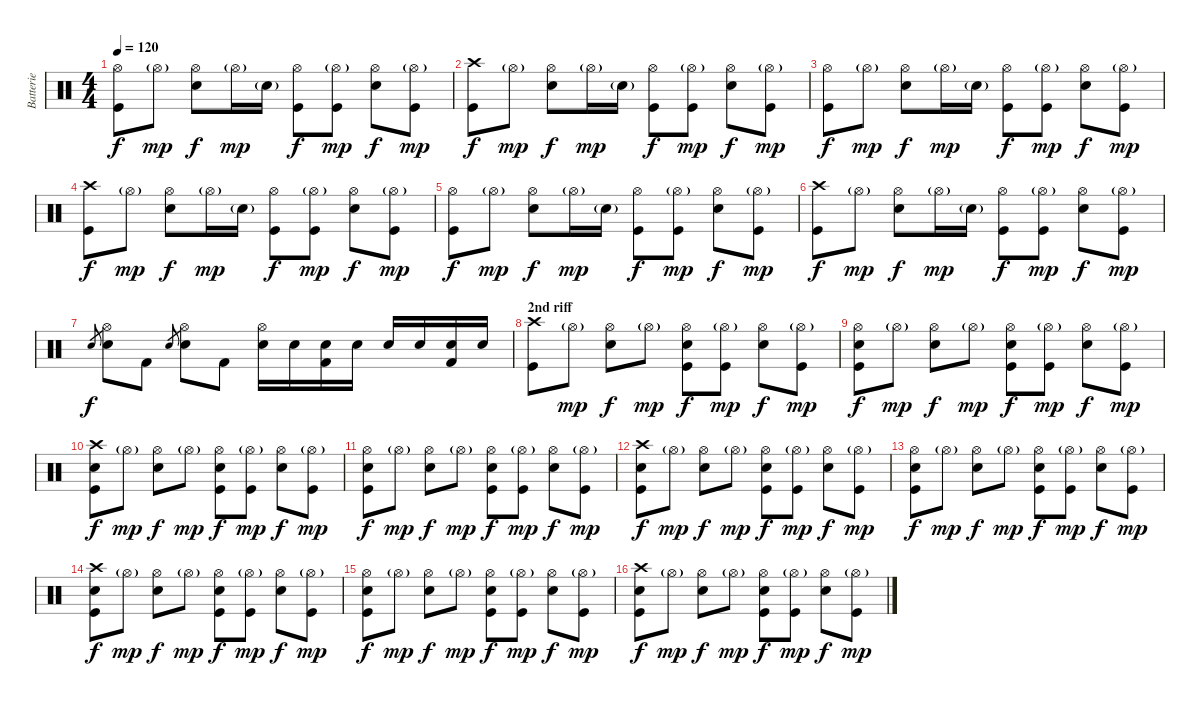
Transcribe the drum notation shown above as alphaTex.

\track ("Batterie" "Batterie") {instrument percussion}
\staff {score}
\articulation defaults
\ts (4 4)
\tempo 120
\clef neutral
\ks c
("Hi-Hat (open)" "Kick (hit)").8{dy f} "Hi-Hat (open)"{g}.8{dy mp} ("Hi-Hat (open)" "Snare (hit) 2").8{dy f} "Hi-Hat (open)"{g}.16{dy mp} "Snare (hit) 2"{g}.16 ("Hi-Hat (open)" "Kick (hit)").8{dy f} ("Hi-Hat (open)"{g} "Kick (hit)").8{dy mp} ("Hi-Hat (open)" "Snare (hit) 2").8{dy f} ("Hi-Hat (open)"{g} "Kick (hit)").8{dy mp} |
("Crash high (hit)" "Kick (hit)").8{dy f} "Hi-Hat (open)"{g}.8{dy mp} ("Hi-Hat (open)" "Snare (hit) 2").8{dy f} "Hi-Hat (open)"{g}.16{dy mp} "Snare (hit) 2"{g}.16 ("Hi-Hat (open)" "Kick (hit)").8{dy f} ("Hi-Hat (open)"{g} "Kick (hit)").8{dy mp} ("Hi-Hat (open)" "Snare (hit) 2").8{dy f} ("Hi-Hat (open)"{g} "Kick (hit)").8{dy mp} |
("Hi-Hat (open)" "Kick (hit)").8{dy f} "Hi-Hat (open)"{g}.8{dy mp} ("Hi-Hat (open)" "Snare (hit) 2").8{dy f} "Hi-Hat (open)"{g}.16{dy mp} "Snare (hit) 2"{g}.16 ("Hi-Hat (open)" "Kick (hit)").8{dy f} ("Hi-Hat (open)"{g} "Kick (hit)").8{dy mp} ("Hi-Hat (open)" "Snare (hit) 2").8{dy f} ("Hi-Hat (open)"{g} "Kick (hit)").8{dy mp} |
("Crash high (hit)" "Kick (hit)").8{dy f} "Hi-Hat (open)"{g}.8{dy mp} ("Hi-Hat (open)" "Snare (hit) 2").8{dy f} "Hi-Hat (open)"{g}.16{dy mp} "Snare (hit) 2"{g}.16 ("Hi-Hat (open)" "Kick (hit)").8{dy f} ("Hi-Hat (open)"{g} "Kick (hit)").8{dy mp} ("Hi-Hat (open)" "Snare (hit) 2").8{dy f} ("Hi-Hat (open)"{g} "Kick (hit)").8{dy mp} |
("Hi-Hat (open)" "Kick (hit)").8{dy f} "Hi-Hat (open)"{g}.8{dy mp} ("Hi-Hat (open)" "Snare (hit) 2").8{dy f} "Hi-Hat (open)"{g}.16{dy mp} "Snare (hit) 2"{g}.16 ("Hi-Hat (open)" "Kick (hit)").8{dy f} ("Hi-Hat (open)"{g} "Kick (hit)").8{dy mp} ("Hi-Hat (open)" "Snare (hit) 2").8{dy f} ("Hi-Hat (open)"{g} "Kick (hit)").8{dy mp} |
("Crash high (hit)" "Kick (hit)").8{dy f} "Hi-Hat (open)"{g}.8{dy mp} ("Hi-Hat (open)" "Snare (hit) 2").8{dy f} "Hi-Hat (open)"{g}.16{dy mp} "Snare (hit) 2"{g}.16 ("Hi-Hat (open)" "Kick (hit)").8{dy f} ("Hi-Hat (open)"{g} "Kick (hit)").8{dy mp} ("Hi-Hat (open)" "Snare (hit) 2").8{dy f} ("Hi-Hat (open)"{g} "Kick (hit)").8{dy mp} |
"Electric Snare (hit)".8{gr dy f} ("Hi-Hat (open)" "Electric Snare (hit)").8 "Kick (hit) 2".8 "Electric Snare (hit)".8{gr} ("Hi-Hat (open)" "Electric Snare (hit)").8 "Kick (hit) 2".8 ("Hi-Hat (open)" "Electric Snare (hit)").16 "Electric Snare (hit)".16 ("Electric Snare (hit)" "Kick (hit) 2").16 "Electric Snare (hit)".16 "Electric Snare (hit)".16 "Electric Snare (hit)".16 ("Electric Snare (hit)" "Kick (hit) 2").16 "Electric Snare (hit)".16 |
\section ("" "2nd riff")
("Crash high (hit)" "Kick (hit)").8 "Hi-Hat (open)"{g}.8{dy mp} ("Hi-Hat (open)" "Electric Snare (hit)").8{dy f} "Hi-Hat (open)"{g}.8{dy mp} ("Hi-Hat (open)" "Kick (hit)" "Electric Snare (hit)").8{dy f} ("Hi-Hat (open)"{g} "Kick (hit)").8{dy mp} ("Hi-Hat (open)" "Electric Snare (hit)").8{dy f} ("Hi-Hat (open)"{g} "Kick (hit)").8{dy mp} |
("Hi-Hat (open)" "Kick (hit)" "Electric Snare (hit)").8{dy f} "Hi-Hat (open)"{g}.8{dy mp} ("Hi-Hat (open)" "Electric Snare (hit)").8{dy f} "Hi-Hat (open)"{g}.8{dy mp} ("Hi-Hat (open)" "Kick (hit)" "Electric Snare (hit)").8{dy f} ("Hi-Hat (open)"{g} "Kick (hit)").8{dy mp} ("Hi-Hat (open)" "Electric Snare (hit)").8{dy f} ("Hi-Hat (open)"{g} "Kick (hit)").8{dy mp} |
("Crash high (hit)" "Kick (hit)" "Electric Snare (hit)").8{dy f} "Hi-Hat (open)"{g}.8{dy mp} ("Hi-Hat (open)" "Electric Snare (hit)").8{dy f} "Hi-Hat (open)"{g}.8{dy mp} ("Hi-Hat (open)" "Kick (hit)" "Electric Snare (hit)").8{dy f} ("Hi-Hat (open)"{g} "Kick (hit)").8{dy mp} ("Hi-Hat (open)" "Electric Snare (hit)").8{dy f} ("Hi-Hat (open)"{g} "Kick (hit)").8{dy mp} |
("Hi-Hat (open)" "Kick (hit)" "Electric Snare (hit)").8{dy f} "Hi-Hat (open)"{g}.8{dy mp} ("Hi-Hat (open)" "Electric Snare (hit)").8{dy f} "Hi-Hat (open)"{g}.8{dy mp} ("Hi-Hat (open)" "Kick (hit)" "Electric Snare (hit)").8{dy f} ("Hi-Hat (open)"{g} "Kick (hit)").8{dy mp} ("Hi-Hat (open)" "Electric Snare (hit)").8{dy f} ("Hi-Hat (open)"{g} "Kick (hit)").8{dy mp} |
("Crash high (hit)" "Kick (hit)" "Electric Snare (hit)").8{dy f} "Hi-Hat (open)"{g}.8{dy mp} ("Hi-Hat (open)" "Electric Snare (hit)").8{dy f} "Hi-Hat (open)"{g}.8{dy mp} ("Hi-Hat (open)" "Kick (hit)" "Electric Snare (hit)").8{dy f} ("Hi-Hat (open)"{g} "Kick (hit)").8{dy mp} ("Hi-Hat (open)" "Electric Snare (hit)").8{dy f} ("Hi-Hat (open)"{g} "Kick (hit)").8{dy mp} |
("Hi-Hat (open)" "Kick (hit)" "Electric Snare (hit)").8{dy f} "Hi-Hat (open)"{g}.8{dy mp} ("Hi-Hat (open)" "Electric Snare (hit)").8{dy f} "Hi-Hat (open)"{g}.8{dy mp} ("Hi-Hat (open)" "Kick (hit)" "Electric Snare (hit)").8{dy f} ("Hi-Hat (open)"{g} "Kick (hit)").8{dy mp} ("Hi-Hat (open)" "Electric Snare (hit)").8{dy f} ("Hi-Hat (open)"{g} "Kick (hit)").8{dy mp} |
("Crash high (hit)" "Kick (hit)" "Electric Snare (hit)").8{dy f} "Hi-Hat (open)"{g}.8{dy mp} ("Hi-Hat (open)" "Electric Snare (hit)").8{dy f} "Hi-Hat (open)"{g}.8{dy mp} ("Hi-Hat (open)" "Kick (hit)" "Electric Snare (hit)").8{dy f} ("Hi-Hat (open)"{g} "Kick (hit)").8{dy mp} ("Hi-Hat (open)" "Electric Snare (hit)").8{dy f} ("Hi-Hat (open)"{g} "Kick (hit)").8{dy mp} |
("Hi-Hat (open)" "Kick (hit)" "Electric Snare (hit)").8{dy f} "Hi-Hat (open)"{g}.8{dy mp} ("Hi-Hat (open)" "Electric Snare (hit)").8{dy f} "Hi-Hat (open)"{g}.8{dy mp} ("Hi-Hat (open)" "Kick (hit)" "Electric Snare (hit)").8{dy f} ("Hi-Hat (open)"{g} "Kick (hit)").8{dy mp} ("Hi-Hat (open)" "Electric Snare (hit)").8{dy f} ("Hi-Hat (open)"{g} "Kick (hit)").8{dy mp} |
("Crash high (hit)" "Kick (hit)" "Electric Snare (hit)").8{dy f} "Hi-Hat (open)"{g}.8{dy mp} ("Hi-Hat (open)" "Electric Snare (hit)").8{dy f} "Hi-Hat (open)"{g}.8{dy mp} ("Hi-Hat (open)" "Kick (hit)" "Electric Snare (hit)").8{dy f} ("Hi-Hat (open)"{g} "Kick (hit)").8{dy mp} ("Hi-Hat (open)" "Electric Snare (hit)").8{dy f} ("Hi-Hat (open)"{g} "Kick (hit)").8{dy mp}
